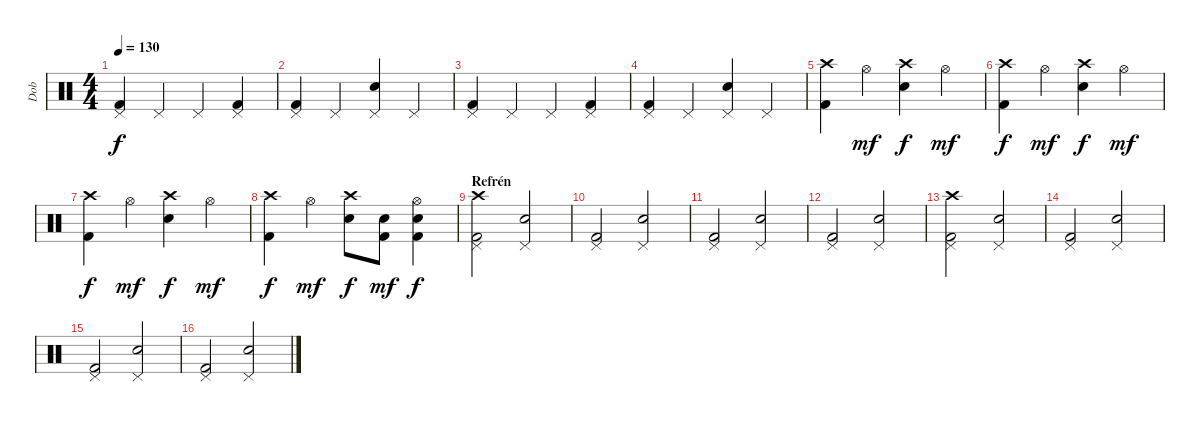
\track ("Dob" "Dob") {instrument percussion}
\staff {score}
\articulation defaults
\ts (4 4)
\tempo 130
\clef neutral
\ks c
("Pedal Hi-Hat (hit)" "Kick (hit) 2").4{dy f} "Pedal Hi-Hat (hit)".4 "Pedal Hi-Hat (hit)".4 ("Pedal Hi-Hat (hit)" "Kick (hit) 2").4 |
("Pedal Hi-Hat (hit)" "Kick (hit) 2").4 "Pedal Hi-Hat (hit)".4 ("Pedal Hi-Hat (hit)" "Snare (hit) 2").4 "Pedal Hi-Hat (hit)".4 |
("Pedal Hi-Hat (hit)" "Kick (hit) 2").4 "Pedal Hi-Hat (hit)".4 "Pedal Hi-Hat (hit)".4 ("Pedal Hi-Hat (hit)" "Kick (hit) 2").4 |
("Pedal Hi-Hat (hit)" "Kick (hit) 2").4 "Pedal Hi-Hat (hit)".4 ("Pedal Hi-Hat (hit)" "Snare (hit) 2").4 "Pedal Hi-Hat (hit)".4 |
("Crash high (hit)" "Kick (hit) 2").4 "Hi-Hat (open)".4{dy mf} ("Crash high (hit)" "Snare (hit) 2").4{dy f} "Hi-Hat (open)".4{dy mf} |
("Crash high (hit)" "Kick (hit) 2").4{dy f} "Hi-Hat (open)".4{dy mf} ("Crash high (hit)" "Snare (hit) 2").4{dy f} "Hi-Hat (open)".4{dy mf} |
("Crash high (hit)" "Kick (hit) 2").4{dy f} "Hi-Hat (open)".4{dy mf} ("Crash high (hit)" "Snare (hit) 2").4{dy f} "Hi-Hat (open)".4{dy mf} |
("Crash high (hit)" "Kick (hit) 2").4{dy f} "Hi-Hat (open)".4{dy mf} ("Crash high (hit)" "Snare (hit) 2").8{dy f} ("Snare (hit) 2" "Kick (hit) 2").8{dy mf} ("Hi-Hat (open)" "Snare (hit) 2" "Kick (hit) 2").4{dy f} |
\section ("" "Refrén")
("Crash high (hit)" "Pedal Hi-Hat (hit)" "Kick (hit) 2").2 ("Pedal Hi-Hat (hit)" "Snare (hit) 2").2 |
("Pedal Hi-Hat (hit)" "Kick (hit) 2").2 ("Pedal Hi-Hat (hit)" "Snare (hit) 2").2 |
("Pedal Hi-Hat (hit)" "Kick (hit) 2").2 ("Pedal Hi-Hat (hit)" "Snare (hit) 2").2 |
("Pedal Hi-Hat (hit)" "Kick (hit) 2").2 ("Pedal Hi-Hat (hit)" "Snare (hit) 2").2 |
("Crash high (hit)" "Pedal Hi-Hat (hit)" "Kick (hit) 2").2 ("Pedal Hi-Hat (hit)" "Snare (hit) 2").2 |
("Pedal Hi-Hat (hit)" "Kick (hit) 2").2 ("Pedal Hi-Hat (hit)" "Snare (hit) 2").2 |
("Pedal Hi-Hat (hit)" "Kick (hit) 2").2 ("Pedal Hi-Hat (hit)" "Snare (hit) 2").2 |
("Pedal Hi-Hat (hit)" "Kick (hit) 2").2 ("Pedal Hi-Hat (hit)" "Snare (hit) 2").2
